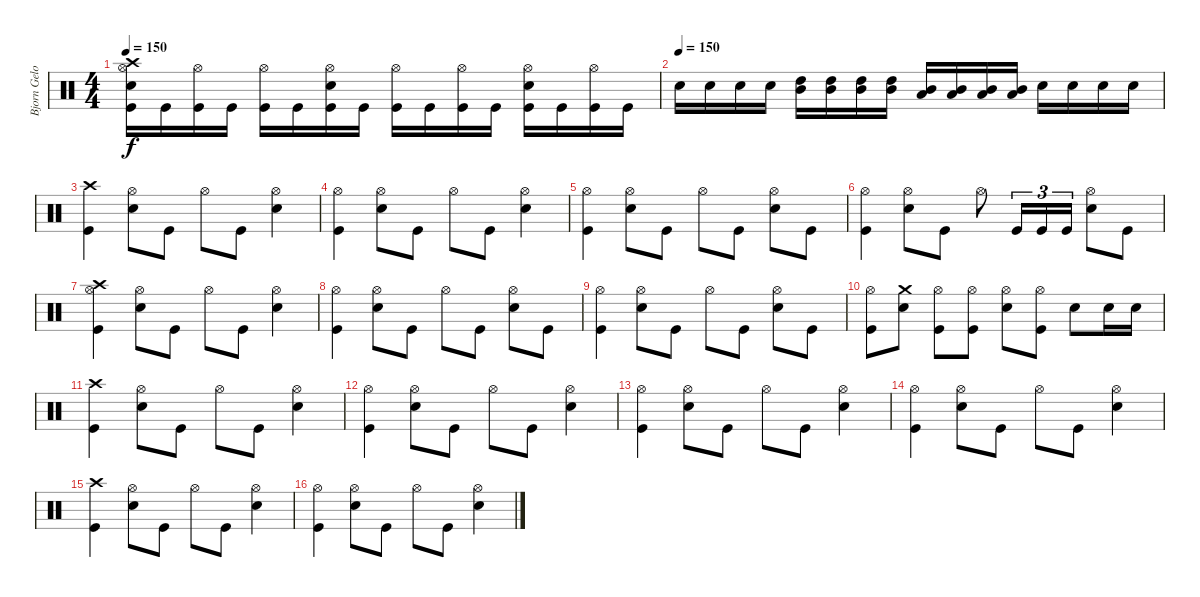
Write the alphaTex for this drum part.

\track ("Bjorn Gelotte-Drum" "Bjorn Gelo") {instrument percussion}
\staff {score}
\articulation defaults
\ts (4 4)
\tempo 150
\clef neutral
\ks c
("Kick (hit)" "Electric Snare (hit)" "Hi-Hat (open)" "Crash high (hit)").16{dy f} "Kick (hit)".16 ("Kick (hit)" "Hi-Hat (open)").16 "Kick (hit)".16 ("Kick (hit)" "Hi-Hat (open)").16 "Kick (hit)".16 ("Kick (hit)" "Electric Snare (hit)" "Hi-Hat (open)").16 "Kick (hit)".16 ("Kick (hit)" "Hi-Hat (open)").16 "Kick (hit)".16 ("Kick (hit)" "Hi-Hat (open)").16 "Kick (hit)".16 ("Kick (hit)" "Electric Snare (hit)" "Hi-Hat (open)").16 "Kick (hit)".16 ("Kick (hit)" "Hi-Hat (open)").16 "Kick (hit)".16 |
\tempo (150)
"Electric Snare (hit)".16 "Electric Snare (hit)".16 "Electric Snare (hit)".16 "Electric Snare (hit)".16 ("High Tom (hit)" "Mid Tom (hit)").16 ("High Tom (hit)" "Mid Tom (hit)").16 ("High Tom (hit)" "Mid Tom (hit)").16 ("High Tom (hit)" "Mid Tom (hit)").16 ("Mid Tom (hit)" "Low Tom (hit)").16 ("Mid Tom (hit)" "Low Tom (hit)").16 ("Mid Tom (hit)" "Low Tom (hit)").16 ("Mid Tom (hit)" "Low Tom (hit)").16 "Electric Snare (hit)".16 "Electric Snare (hit)".16 "Electric Snare (hit)".16 "Electric Snare (hit)".16 |
("Kick (hit)" "Crash high (hit)").4 ("Electric Snare (hit)" "Hi-Hat (open)").8 "Kick (hit)".8 "Hi-Hat (open)".8 "Kick (hit)".8 ("Electric Snare (hit)" "Hi-Hat (open)").4 |
("Kick (hit)" "Hi-Hat (open)").4 ("Electric Snare (hit)" "Hi-Hat (open)").8 "Kick (hit)".8 "Hi-Hat (open)".8 "Kick (hit)".8 ("Electric Snare (hit)" "Hi-Hat (open)").4 |
("Kick (hit)" "Hi-Hat (open)").4 ("Electric Snare (hit)" "Hi-Hat (open)").8 "Kick (hit)".8 "Hi-Hat (open)".8 "Kick (hit)".8 ("Electric Snare (hit)" "Hi-Hat (open)").8 "Kick (hit)".8 |
("Kick (hit)" "Hi-Hat (open)").4 ("Electric Snare (hit)" "Hi-Hat (open)").8 "Kick (hit)".8 "Hi-Hat (open)".8 "Kick (hit)".16{tu (3 2)} "Kick (hit)".16{tu (3 2)} "Kick (hit)".16{tu (3 2)} ("Electric Snare (hit)" "Hi-Hat (open)").8 "Kick (hit)".8 |
("Kick (hit)" "Hi-Hat (open)" "Crash high (hit)").4 ("Electric Snare (hit)" "Hi-Hat (open)").8 "Kick (hit)".8 "Hi-Hat (open)".8 "Kick (hit)".8 ("Electric Snare (hit)" "Hi-Hat (open)").4 |
("Kick (hit)" "Hi-Hat (open)").4 ("Electric Snare (hit)" "Hi-Hat (open)").8 "Kick (hit)".8 "Hi-Hat (open)".8 "Kick (hit)".8 ("Electric Snare (hit)" "Hi-Hat (open)").8 "Kick (hit)".8 |
("Kick (hit)" "Hi-Hat (open)").4 ("Electric Snare (hit)" "Hi-Hat (open)").8 "Kick (hit)".8 "Hi-Hat (open)".8 "Kick (hit)".8 ("Electric Snare (hit)" "Hi-Hat (open)").8 "Kick (hit)".8 |
("Kick (hit)" "Hi-Hat (open)").8 ("Electric Snare (hit)" "Crash medium (hit)").8 ("Kick (hit)" "Hi-Hat (open)").8 ("Kick (hit)" "Hi-Hat (open)").8 ("Electric Snare (hit)" "Hi-Hat (open)").8 ("Kick (hit)" "Hi-Hat (open)").8 "Electric Snare (hit)".8 "Electric Snare (hit)".16 "Electric Snare (hit)".16 |
("Kick (hit)" "Crash high (hit)").4 ("Electric Snare (hit)" "Hi-Hat (open)").8 "Kick (hit)".8 "Hi-Hat (open)".8 "Kick (hit)".8 ("Electric Snare (hit)" "Hi-Hat (open)").4 |
("Kick (hit)" "Hi-Hat (open)").4 ("Electric Snare (hit)" "Hi-Hat (open)").8 "Kick (hit)".8 "Hi-Hat (open)".8 "Kick (hit)".8 ("Electric Snare (hit)" "Hi-Hat (open)").4 |
("Kick (hit)" "Hi-Hat (open)").4 ("Electric Snare (hit)" "Hi-Hat (open)").8 "Kick (hit)".8 "Hi-Hat (open)".8 "Kick (hit)".8 ("Electric Snare (hit)" "Hi-Hat (open)").4 |
("Kick (hit)" "Hi-Hat (open)").4 ("Electric Snare (hit)" "Hi-Hat (open)").8 "Kick (hit)".8 "Hi-Hat (open)".8 "Kick (hit)".8 ("Electric Snare (hit)" "Hi-Hat (open)").4 |
("Kick (hit)" "Crash high (hit)").4 ("Electric Snare (hit)" "Hi-Hat (open)").8 "Kick (hit)".8 "Hi-Hat (open)".8 "Kick (hit)".8 ("Electric Snare (hit)" "Hi-Hat (open)").4 |
("Kick (hit)" "Hi-Hat (open)").4 ("Electric Snare (hit)" "Hi-Hat (open)").8 "Kick (hit)".8 "Hi-Hat (open)".8 "Kick (hit)".8 ("Electric Snare (hit)" "Hi-Hat (open)").4
